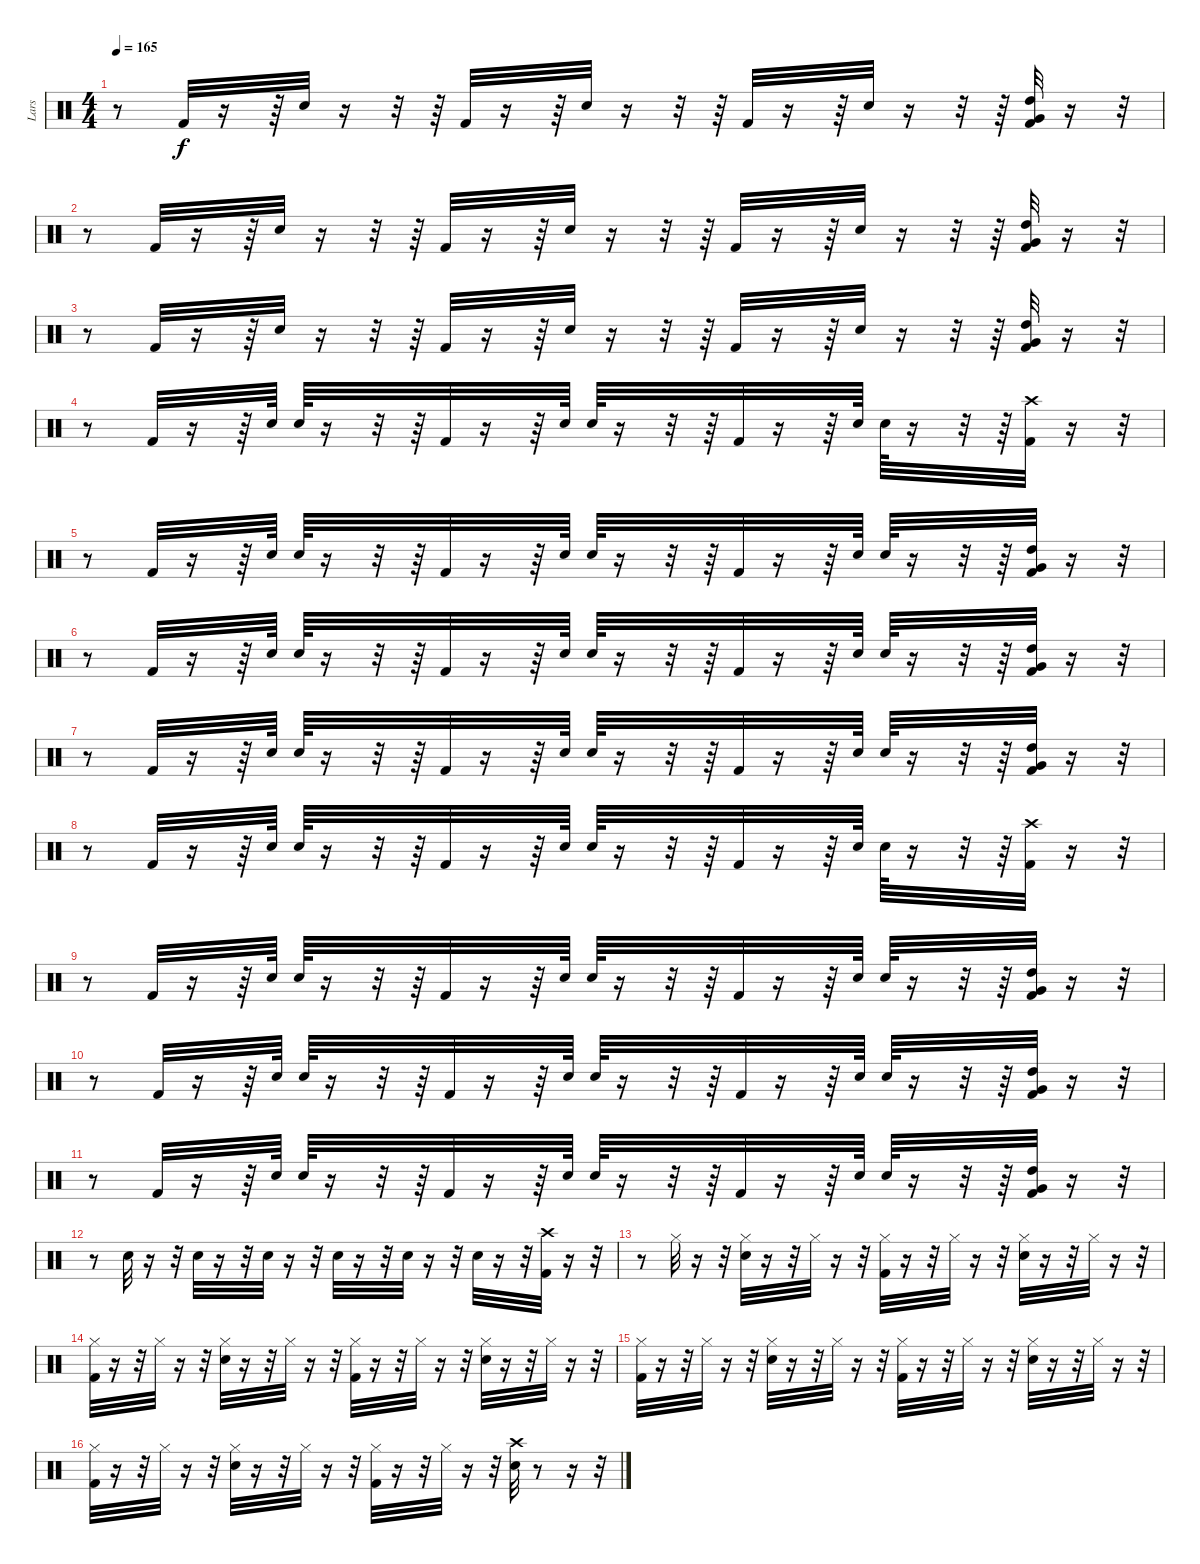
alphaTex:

\track ("Lars" "Lars") {instrument percussion}
\staff {score}
\articulation defaults
\ts (4 4)
\tempo 165
\clef neutral
\ks c
r.8{dy f} "Kick (hit) 2".32 r.16 r.64 "Snare (hit) 2".32 r.16 r.32 r.64 "Kick (hit) 2".32 r.16 r.64 "Snare (hit) 2".32 r.16 r.32 r.64 "Kick (hit) 2".32 r.16 r.64 "Snare (hit) 2".32 r.16 r.32 r.64 ("Very Low Tom (hit)" "High Tom (hit)" "Kick (hit) 2").32 r.16 r.32 |
r.8 "Kick (hit) 2".32 r.16 r.64 "Snare (hit) 2".32 r.16 r.32 r.64 "Kick (hit) 2".32 r.16 r.64 "Snare (hit) 2".32 r.16 r.32 r.64 "Kick (hit) 2".32 r.16 r.64 "Snare (hit) 2".32 r.16 r.32 r.64 ("Very Low Tom (hit)" "High Tom (hit)" "Kick (hit) 2").32 r.16 r.32 |
r.8 "Kick (hit) 2".32 r.16 r.64 "Snare (hit) 2".32 r.16 r.32 r.64 "Kick (hit) 2".32 r.16 r.64 "Snare (hit) 2".32 r.16 r.32 r.64 "Kick (hit) 2".32 r.16 r.64 "Snare (hit) 2".32 r.16 r.32 r.64 ("Very Low Tom (hit)" "High Tom (hit)" "Kick (hit) 2").32 r.16 r.32 |
r.8 "Kick (hit) 2".32 r.16 r.64 "Snare (hit) 2".64 "Snare (hit) 2".64 r.16 r.32 r.64 "Kick (hit) 2".32 r.16 r.64 "Snare (hit) 2".64 "Snare (hit) 2".64 r.16 r.32 r.64 "Kick (hit) 2".32 r.16 r.64 "Snare (hit) 2".64 "Snare (hit) 2".64 r.16 r.32 r.64 ("Crash high (hit)" "Kick (hit) 2").32 r.16 r.32 |
r.8 "Kick (hit) 2".32 r.16 r.64 "Snare (hit) 2".64 "Snare (hit) 2".64 r.16 r.32 r.64 "Kick (hit) 2".32 r.16 r.64 "Snare (hit) 2".64 "Snare (hit) 2".64 r.16 r.32 r.64 "Kick (hit) 2".32 r.16 r.64 "Snare (hit) 2".64 "Snare (hit) 2".64 r.16 r.32 r.64 ("Very Low Tom (hit)" "High Tom (hit)" "Kick (hit) 2").32 r.16 r.32 |
r.8 "Kick (hit) 2".32 r.16 r.64 "Snare (hit) 2".64 "Snare (hit) 2".64 r.16 r.32 r.64 "Kick (hit) 2".32 r.16 r.64 "Snare (hit) 2".64 "Snare (hit) 2".64 r.16 r.32 r.64 "Kick (hit) 2".32 r.16 r.64 "Snare (hit) 2".64 "Snare (hit) 2".64 r.16 r.32 r.64 ("Very Low Tom (hit)" "High Tom (hit)" "Kick (hit) 2").32 r.16 r.32 |
r.8 "Kick (hit) 2".32 r.16 r.64 "Snare (hit) 2".64 "Snare (hit) 2".64 r.16 r.32 r.64 "Kick (hit) 2".32 r.16 r.64 "Snare (hit) 2".64 "Snare (hit) 2".64 r.16 r.32 r.64 "Kick (hit) 2".32 r.16 r.64 "Snare (hit) 2".64 "Snare (hit) 2".64 r.16 r.32 r.64 ("Very Low Tom (hit)" "High Tom (hit)" "Kick (hit) 2").32 r.16 r.32 |
r.8 "Kick (hit) 2".32 r.16 r.64 "Snare (hit) 2".64 "Snare (hit) 2".64 r.16 r.32 r.64 "Kick (hit) 2".32 r.16 r.64 "Snare (hit) 2".64 "Snare (hit) 2".64 r.16 r.32 r.64 "Kick (hit) 2".32 r.16 r.64 "Snare (hit) 2".64 "Snare (hit) 2".64 r.16 r.32 r.64 ("Crash high (hit)" "Kick (hit) 2").32 r.16 r.32 |
r.8 "Kick (hit) 2".32 r.16 r.64 "Snare (hit) 2".64 "Snare (hit) 2".64 r.16 r.32 r.64 "Kick (hit) 2".32 r.16 r.64 "Snare (hit) 2".64 "Snare (hit) 2".64 r.16 r.32 r.64 "Kick (hit) 2".32 r.16 r.64 "Snare (hit) 2".64 "Snare (hit) 2".64 r.16 r.32 r.64 ("Very Low Tom (hit)" "High Tom (hit)" "Kick (hit) 2").32 r.16 r.32 |
r.8 "Kick (hit) 2".32 r.16 r.64 "Snare (hit) 2".64 "Snare (hit) 2".64 r.16 r.32 r.64 "Kick (hit) 2".32 r.16 r.64 "Snare (hit) 2".64 "Snare (hit) 2".64 r.16 r.32 r.64 "Kick (hit) 2".32 r.16 r.64 "Snare (hit) 2".64 "Snare (hit) 2".64 r.16 r.32 r.64 ("Very Low Tom (hit)" "High Tom (hit)" "Kick (hit) 2").32 r.16 r.32 |
r.8 "Kick (hit) 2".32 r.16 r.64 "Snare (hit) 2".64 "Snare (hit) 2".64 r.16 r.32 r.64 "Kick (hit) 2".32 r.16 r.64 "Snare (hit) 2".64 "Snare (hit) 2".64 r.16 r.32 r.64 "Kick (hit) 2".32 r.16 r.64 "Snare (hit) 2".64 "Snare (hit) 2".64 r.16 r.32 r.64 ("Very Low Tom (hit)" "High Tom (hit)" "Kick (hit) 2").32 r.16 r.32 |
r.8 "Snare (hit) 2".32 r.16 r.32 "Snare (hit) 2".32 r.16 r.32 "Snare (hit) 2".32 r.16 r.32 "Snare (hit) 2".32 r.16 r.32 "Snare (hit) 2".32 r.16 r.32 "Snare (hit) 2".32 r.16 r.32 ("Crash high (hit)" "Kick (hit) 2").32 r.16 r.32 |
r.8 "Hi-Hat (closed)".32 r.16 r.32 ("Snare (hit) 2" "Hi-Hat (closed)").32 r.16 r.32 "Hi-Hat (closed)".32 r.16 r.32 ("Hi-Hat (closed)" "Kick (hit) 2").32 r.16 r.32 "Hi-Hat (closed)".32 r.16 r.32 ("Snare (hit) 2" "Hi-Hat (closed)").32 r.16 r.32 "Hi-Hat (closed)".32 r.16 r.32 |
("Hi-Hat (closed)" "Kick (hit) 2").32 r.16 r.32 "Hi-Hat (closed)".32 r.16 r.32 ("Snare (hit) 2" "Hi-Hat (closed)").32 r.16 r.32 "Hi-Hat (closed)".32 r.16 r.32 ("Hi-Hat (closed)" "Kick (hit) 2").32 r.16 r.32 "Hi-Hat (closed)".32 r.16 r.32 ("Snare (hit) 2" "Hi-Hat (closed)").32 r.16 r.32 "Hi-Hat (closed)".32 r.16 r.32 |
("Hi-Hat (closed)" "Kick (hit) 2").32 r.16 r.32 "Hi-Hat (closed)".32 r.16 r.32 ("Snare (hit) 2" "Hi-Hat (closed)").32 r.16 r.32 "Hi-Hat (closed)".32 r.16 r.32 ("Hi-Hat (closed)" "Kick (hit) 2").32 r.16 r.32 "Hi-Hat (closed)".32 r.16 r.32 ("Snare (hit) 2" "Hi-Hat (closed)").32 r.16 r.32 "Hi-Hat (closed)".32 r.16 r.32 |
("Kick (hit) 2" "Hi-Hat (closed)").32 r.16 r.32 "Hi-Hat (closed)".32 r.16 r.32 ("Snare (hit) 2" "Hi-Hat (closed)").32 r.16 r.32 "Hi-Hat (closed)".32 r.16 r.32 ("Kick (hit) 2" "Hi-Hat (closed)").32 r.16 r.32 "Hi-Hat (closed)".32 r.16 r.32 ("Crash high (hit)" "Snare (hit) 2").32 r.8 r.16 r.32
